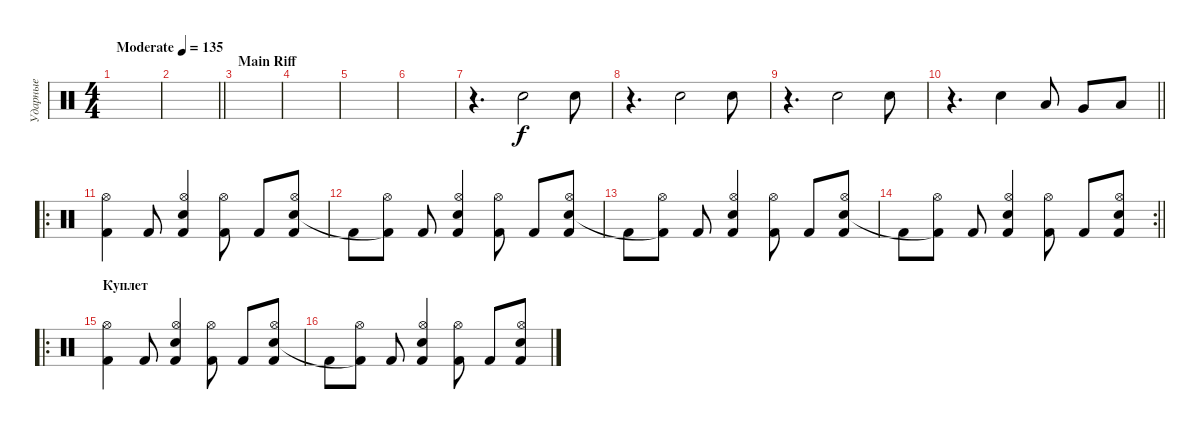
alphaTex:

\track ("Ударные" "Ударные") {instrument percussion}
\staff
\articulation defaults
\ts (4 4)
\tempo (135 "Moderate")
\clef neutral
\ks c
|
\barLineRight lightlight
|
\section ("" "Main Riff")
|
|
|
|
r.4{d} "Snare (hit) 2".2 "Snare (hit) 2".8 |
r.4{d} "Snare (hit) 2".2 "Snare (hit) 2".8 |
r.4{d} "Snare (hit) 2".2 "Snare (hit) 2".8 |
\barLineRight lightlight
r.4{d} "Snare (hit) 2".4 "Low Tom (hit)".8 "Very Low Tom (hit)".8 "Low Floor Tom (hit)".8 |
\ro
("Hi-Hat (open)" "Kick (hit) 2").4 "Kick (hit) 2".8 ("Hi-Hat (open)" "Snare (hit) 2" "Kick (hit) 2").4 ("Hi-Hat (open)" "Kick (hit) 2").8 "Kick (hit) 2".8 ("Hi-Hat (open)" "Snare (hit) 2" "Kick (hit) 2").8 |
"Kick (hit) 2".8 ("Hi-Hat (open)" "Kick (hit) 2"{t}).8 "Kick (hit) 2".8 ("Hi-Hat (open)" "Snare (hit) 2" "Kick (hit) 2").4 ("Hi-Hat (open)" "Kick (hit) 2").8 "Kick (hit) 2".8 ("Hi-Hat (open)" "Snare (hit) 2" "Kick (hit) 2").8 |
"Kick (hit) 2".8 ("Hi-Hat (open)" "Kick (hit) 2"{t}).8 "Kick (hit) 2".8 ("Hi-Hat (open)" "Snare (hit) 2" "Kick (hit) 2").4 ("Hi-Hat (open)" "Kick (hit) 2").8 "Kick (hit) 2".8 ("Hi-Hat (open)" "Snare (hit) 2" "Kick (hit) 2").8 |
\rc 2
\barLineRight lightlight "Kick (hit) 2".8
("Hi-Hat (open)" "Kick (hit) 2"{t}).8 "Kick (hit) 2".8 ("Hi-Hat (open)" "Snare (hit) 2" "Kick (hit) 2").4 ("Hi-Hat (open)" "Kick (hit) 2").8 "Kick (hit) 2".8 ("Hi-Hat (open)" "Snare (hit) 2" "Kick (hit) 2").8 |
\ro
\section ("" "Куплет")
("Hi-Hat (open)" "Kick (hit) 2").4 "Kick (hit) 2".8 ("Hi-Hat (open)" "Snare (hit) 2" "Kick (hit) 2").4 ("Hi-Hat (open)" "Kick (hit) 2").8 "Kick (hit) 2".8 ("Hi-Hat (open)" "Snare (hit) 2" "Kick (hit) 2").8 |
"Kick (hit) 2".8 ("Hi-Hat (open)" "Kick (hit) 2"{t}).8 "Kick (hit) 2".8 ("Hi-Hat (open)" "Snare (hit) 2" "Kick (hit) 2").4 ("Hi-Hat (open)" "Kick (hit) 2").8 "Kick (hit) 2".8 ("Hi-Hat (open)" "Snare (hit) 2" "Kick (hit) 2").8
